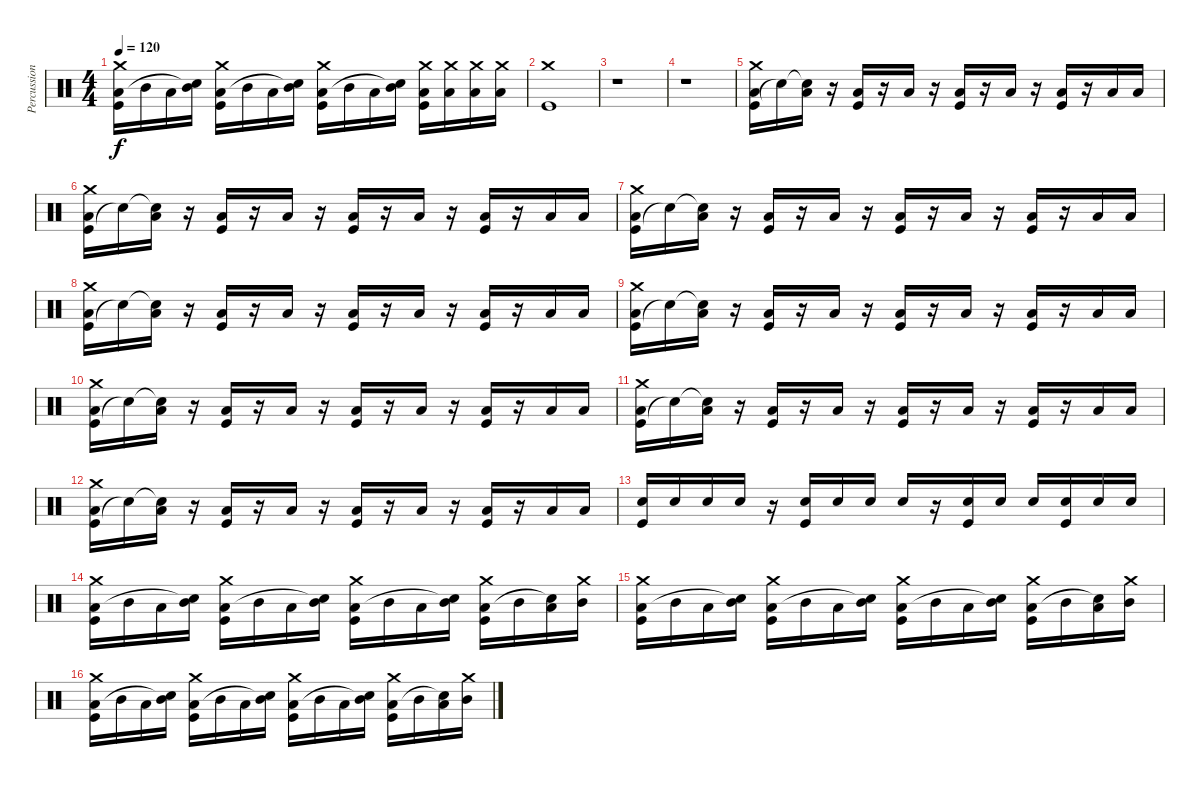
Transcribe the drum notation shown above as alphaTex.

\track ("Percussion" "Percussion") {instrument percussion}
\staff {score}
\articulation defaults
\ts (4 4)
\tempo 120
\clef neutral
\ks c
("Kick (hit)" "Low Tom (hit)" "Crash medium (hit)").16{dy f} "Mid Tom (hit)".16 "Low Tom (hit)".16 ("Mid Tom (hit)" "Snare (hit)"{t}).16 ("Kick (hit)" "Low Tom (hit)" "Crash medium (hit)").16 "Mid Tom (hit)".16 "Low Tom (hit)".16 ("Mid Tom (hit)" "Snare (hit)"{t}).16 ("Kick (hit)" "Low Tom (hit)" "Crash medium (hit)").16 "Mid Tom (hit)".16 "Low Tom (hit)".16 ("Mid Tom (hit)" "Snare (hit)"{t}).16 ("Kick (hit)" "Low Tom (hit)" "Crash medium (hit)").16 ("Low Tom (hit)" "Crash medium (hit)").16 ("Low Tom (hit)" "Crash medium (hit)").16 ("Low Tom (hit)" "Crash medium (hit)").16 |
("Crash medium (hit)" "Kick (hit)").1 |
r.1 |
r.1 |
("Kick (hit)" "Crash medium (hit)" "Low Tom (hit)").16 "Snare (hit)"{t}.16 ("Snare (hit)"{t} "Low Tom (hit)").16 r.16 ("Kick (hit)" "Low Tom (hit)").16 r.16 "Low Tom (hit)".16 r.16 ("Kick (hit)" "Low Tom (hit)").16 r.16 "Low Tom (hit)".16 r.16 ("Kick (hit)" "Low Tom (hit)").16 r.16 "Low Tom (hit)".16 "Low Tom (hit)".16 |
("Kick (hit)" "Crash medium (hit)" "Low Tom (hit)").16 "Snare (hit)"{t}.16 ("Snare (hit)"{t} "Low Tom (hit)").16 r.16 ("Kick (hit)" "Low Tom (hit)").16 r.16 "Low Tom (hit)".16 r.16 ("Kick (hit)" "Low Tom (hit)").16 r.16 "Low Tom (hit)".16 r.16 ("Kick (hit)" "Low Tom (hit)").16 r.16 "Low Tom (hit)".16 "Low Tom (hit)".16 |
("Kick (hit)" "Crash medium (hit)" "Low Tom (hit)").16 "Snare (hit)"{t}.16 ("Snare (hit)"{t} "Low Tom (hit)").16 r.16 ("Kick (hit)" "Low Tom (hit)").16 r.16 "Low Tom (hit)".16 r.16 ("Kick (hit)" "Low Tom (hit)").16 r.16 "Low Tom (hit)".16 r.16 ("Kick (hit)" "Low Tom (hit)").16 r.16 "Low Tom (hit)".16 "Low Tom (hit)".16 |
("Kick (hit)" "Crash medium (hit)" "Low Tom (hit)").16 "Snare (hit)"{t}.16 ("Snare (hit)"{t} "Low Tom (hit)").16 r.16 ("Kick (hit)" "Low Tom (hit)").16 r.16 "Low Tom (hit)".16 r.16 ("Kick (hit)" "Low Tom (hit)").16 r.16 "Low Tom (hit)".16 r.16 ("Kick (hit)" "Low Tom (hit)").16 r.16 "Low Tom (hit)".16 "Low Tom (hit)".16 |
("Kick (hit)" "Crash medium (hit)" "Low Tom (hit)").16 "Snare (hit)"{t}.16 ("Snare (hit)"{t} "Low Tom (hit)").16 r.16 ("Kick (hit)" "Low Tom (hit)").16 r.16 "Low Tom (hit)".16 r.16 ("Kick (hit)" "Low Tom (hit)").16 r.16 "Low Tom (hit)".16 r.16 ("Kick (hit)" "Low Tom (hit)").16 r.16 "Low Tom (hit)".16 "Low Tom (hit)".16 |
("Kick (hit)" "Crash medium (hit)" "Low Tom (hit)").16 "Snare (hit)"{t}.16 ("Snare (hit)"{t} "Low Tom (hit)").16 r.16 ("Kick (hit)" "Low Tom (hit)").16 r.16 "Low Tom (hit)".16 r.16 ("Kick (hit)" "Low Tom (hit)").16 r.16 "Low Tom (hit)".16 r.16 ("Kick (hit)" "Low Tom (hit)").16 r.16 "Low Tom (hit)".16 "Low Tom (hit)".16 |
("Kick (hit)" "Crash medium (hit)" "Low Tom (hit)").16 "Snare (hit)"{t}.16 ("Snare (hit)"{t} "Low Tom (hit)").16 r.16 ("Kick (hit)" "Low Tom (hit)").16 r.16 "Low Tom (hit)".16 r.16 ("Kick (hit)" "Low Tom (hit)").16 r.16 "Low Tom (hit)".16 r.16 ("Kick (hit)" "Low Tom (hit)").16 r.16 "Low Tom (hit)".16 "Low Tom (hit)".16 |
("Kick (hit)" "Crash medium (hit)" "Low Tom (hit)").16 "Snare (hit)"{t}.16 ("Snare (hit)"{t} "Low Tom (hit)").16 r.16 ("Kick (hit)" "Low Tom (hit)").16 r.16 "Low Tom (hit)".16 r.16 ("Kick (hit)" "Low Tom (hit)").16 r.16 "Low Tom (hit)".16 r.16 ("Kick (hit)" "Low Tom (hit)").16 r.16 "Low Tom (hit)".16 "Low Tom (hit)".16 |
("Kick (hit)" "Snare (hit) 2").16 "Snare (hit) 2".16 "Snare (hit) 2".16 "Snare (hit) 2".16 r.16 ("Kick (hit)" "Snare (hit) 2").16 "Snare (hit) 2".16 "Snare (hit) 2".16 "Snare (hit) 2".16 r.16 ("Kick (hit)" "Snare (hit) 2").16 "Snare (hit) 2".16 "Snare (hit) 2".16 ("Kick (hit)" "Snare (hit) 2").16 "Snare (hit) 2".16 "Snare (hit) 2".16 |
("Kick (hit)" "Low Tom (hit)" "Crash medium (hit)").16 "Mid Tom (hit)".16 "Low Tom (hit)".16 ("Mid Tom (hit)" "Snare (hit)"{t}).16 ("Kick (hit)" "Low Tom (hit)" "Crash medium (hit)").16 "Mid Tom (hit)".16 "Low Tom (hit)".16 ("Mid Tom (hit)" "Snare (hit)"{t}).16 ("Kick (hit)" "Low Tom (hit)" "Crash medium (hit)").16 "Mid Tom (hit)".16 "Low Tom (hit)".16 ("Mid Tom (hit)" "Snare (hit)"{t}).16 ("Kick (hit)" "Low Tom (hit)" "Crash medium (hit)").16 "Mid Tom (hit)".16 ("Low Tom (hit)" "Snare (hit)"{t}).16 ("Mid Tom (hit)" "Crash medium (hit)").16 |
("Kick (hit)" "Low Tom (hit)" "Crash medium (hit)").16 "Mid Tom (hit)".16 "Low Tom (hit)".16 ("Mid Tom (hit)" "Snare (hit)"{t}).16 ("Kick (hit)" "Low Tom (hit)" "Crash medium (hit)").16 "Mid Tom (hit)".16 "Low Tom (hit)".16 ("Mid Tom (hit)" "Snare (hit)"{t}).16 ("Kick (hit)" "Low Tom (hit)" "Crash medium (hit)").16 "Mid Tom (hit)".16 "Low Tom (hit)".16 ("Mid Tom (hit)" "Snare (hit)"{t}).16 ("Kick (hit)" "Low Tom (hit)" "Crash medium (hit)").16 "Mid Tom (hit)".16 ("Low Tom (hit)" "Snare (hit)"{t}).16 ("Mid Tom (hit)" "Crash medium (hit)").16 |
("Kick (hit)" "Low Tom (hit)" "Crash medium (hit)").16 "Mid Tom (hit)".16 "Low Tom (hit)".16 ("Mid Tom (hit)" "Snare (hit)"{t}).16 ("Kick (hit)" "Low Tom (hit)" "Crash medium (hit)").16 "Mid Tom (hit)".16 "Low Tom (hit)".16 ("Mid Tom (hit)" "Snare (hit)"{t}).16 ("Kick (hit)" "Low Tom (hit)" "Crash medium (hit)").16 "Mid Tom (hit)".16 "Low Tom (hit)".16 ("Mid Tom (hit)" "Snare (hit)"{t}).16 ("Kick (hit)" "Low Tom (hit)" "Crash medium (hit)").16 "Mid Tom (hit)".16 ("Low Tom (hit)" "Snare (hit)"{t}).16 ("Mid Tom (hit)" "Crash medium (hit)").16
